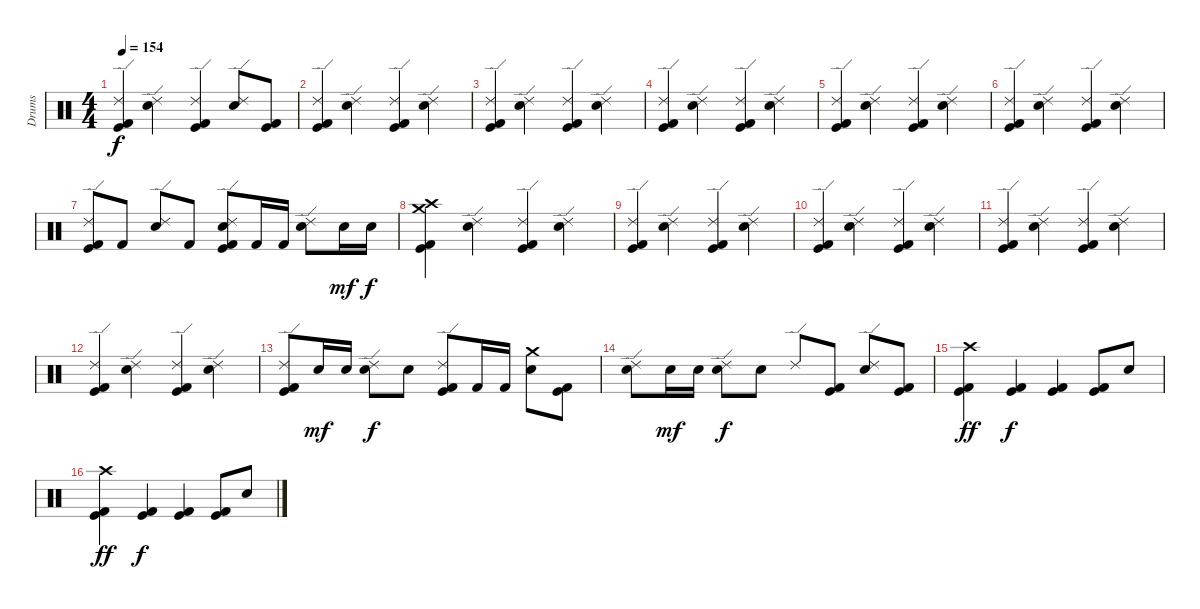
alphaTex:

\track ("Drums" "Drums") {instrument percussion}
\staff {score}
\articulation defaults
\ts (4 4)
\tempo 154
\clef neutral
\ks c
("Ride (edge) 2" "Kick (hit)" "Kick (hit) 2").4{dy f} ("Ride (edge) 2" "Snare (hit) 2").4 ("Ride (edge) 2" "Kick (hit)" "Kick (hit) 2").4 ("Ride (edge) 2" "Snare (hit) 2").8 ("Kick (hit)" "Kick (hit) 2").8 |
("Ride (edge) 2" "Kick (hit)" "Kick (hit) 2").4 ("Ride (edge) 2" "Snare (hit) 2").4 ("Ride (edge) 2" "Kick (hit)" "Kick (hit) 2").4 ("Ride (edge) 2" "Snare (hit) 2").4 |
("Ride (edge) 2" "Kick (hit)" "Kick (hit) 2").4 ("Ride (edge) 2" "Snare (hit) 2").4 ("Ride (edge) 2" "Kick (hit)" "Kick (hit) 2").4 ("Ride (edge) 2" "Snare (hit) 2").4 |
("Ride (edge) 2" "Kick (hit)" "Kick (hit) 2").4 ("Ride (edge) 2" "Snare (hit) 2").4 ("Ride (edge) 2" "Kick (hit)" "Kick (hit) 2").4 ("Ride (edge) 2" "Snare (hit) 2").4 |
("Ride (edge) 2" "Kick (hit)" "Kick (hit) 2").4 ("Ride (edge) 2" "Snare (hit) 2").4 ("Ride (edge) 2" "Kick (hit)" "Kick (hit) 2").4 ("Ride (edge) 2" "Snare (hit) 2").4 |
("Ride (edge) 2" "Kick (hit)" "Kick (hit) 2").4 ("Ride (edge) 2" "Snare (hit) 2").4 ("Ride (edge) 2" "Kick (hit)" "Kick (hit) 2").4 ("Ride (edge) 2" "Snare (hit) 2").4 |
("Ride (edge) 2" "Kick (hit)" "Kick (hit) 2").8 "Kick (hit) 2".8 ("Ride (edge) 2" "Snare (hit) 2").8 "Kick (hit) 2".8 ("Ride (edge) 2" "Snare (hit) 2" "Kick (hit)" "Kick (hit) 2").8 "Kick (hit) 2".16 "Kick (hit) 2".16 ("Ride (edge) 2" "Snare (hit) 2").8 "Snare (hit) 2".16{dy mf} "Snare (hit) 2".16{dy f} |
("Crash medium (hit)" "Crash high (hit)" "Kick (hit)" "Kick (hit) 2").4 ("Ride (edge) 2" "Snare (hit) 2").4 ("Ride (edge) 2" "Kick (hit)" "Kick (hit) 2").4 ("Ride (edge) 2" "Snare (hit) 2").4 |
("Ride (edge) 2" "Kick (hit)" "Kick (hit) 2").4 ("Ride (edge) 2" "Snare (hit) 2").4 ("Ride (edge) 2" "Kick (hit)" "Kick (hit) 2").4 ("Ride (edge) 2" "Snare (hit) 2").4 |
("Ride (edge) 2" "Kick (hit)" "Kick (hit) 2").4 ("Ride (edge) 2" "Snare (hit) 2").4 ("Ride (edge) 2" "Kick (hit)" "Kick (hit) 2").4 ("Ride (edge) 2" "Snare (hit) 2").4 |
("Ride (edge) 2" "Kick (hit)" "Kick (hit) 2").4 ("Ride (edge) 2" "Snare (hit) 2").4 ("Ride (edge) 2" "Kick (hit)" "Kick (hit) 2").4 ("Ride (edge) 2" "Snare (hit) 2").4 |
("Ride (edge) 2" "Kick (hit)" "Kick (hit) 2").4 ("Ride (edge) 2" "Snare (hit) 2").4 ("Ride (edge) 2" "Kick (hit)" "Kick (hit) 2").4 ("Ride (edge) 2" "Snare (hit) 2").4 |
("Ride (edge) 2" "Kick (hit)" "Kick (hit) 2").8 "Electric Snare (hit)".16{dy mf} "Electric Snare (hit)".16 ("Ride (edge) 2" "Snare (hit) 2").8{dy f} "Electric Snare (hit)".8 ("Ride (edge) 2" "Kick (hit)" "Kick (hit) 2").8 "Kick (hit) 2".16 "Kick (hit) 2".16 ("Crash medium (hit)" "Snare (hit) 2").8 ("Kick (hit)" "Kick (hit) 2").8 |
("Ride (edge) 2" "Snare (hit) 2").8 "Snare (hit) 2".16{dy mf} "Snare (hit) 2".16 ("Ride (edge) 2" "Snare (hit) 2").8{dy f} "Snare (hit) 2".8 "Ride (edge) 2".8 ("Kick (hit)" "Kick (hit) 2").8 ("Ride (edge) 2" "Snare (hit) 2").8 ("Kick (hit)" "Kick (hit) 2").8 |
("Crash high (hit)" "Kick (hit)" "Kick (hit) 2").4{dy ff} ("Kick (hit)" "Kick (hit) 2").4{dy f} ("Kick (hit)" "Kick (hit) 2").4 ("Kick (hit)" "Kick (hit) 2").8 "Snare (hit) 2".8 |
("Crash high (hit)" "Kick (hit)" "Kick (hit) 2").4{dy ff} ("Kick (hit)" "Kick (hit) 2").4{dy f} ("Kick (hit)" "Kick (hit) 2").4 ("Kick (hit)" "Kick (hit) 2").8 "Snare (hit) 2".8
